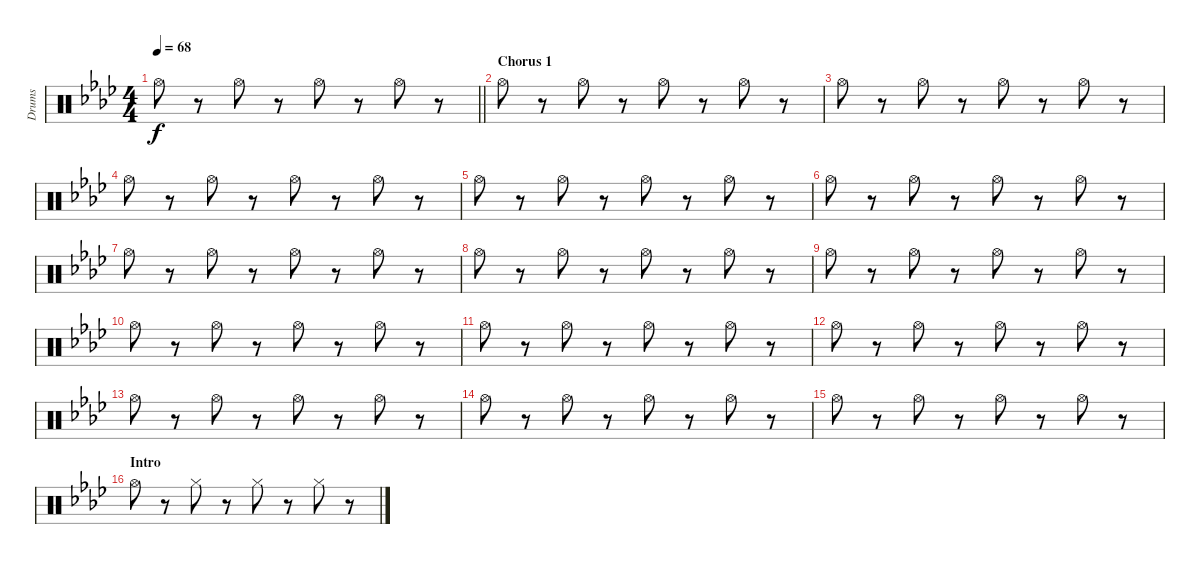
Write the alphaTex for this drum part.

\track ("Drums" "Drums") {instrument percussion}
\staff {score}
\articulation defaults
\ts (4 4)
\tempo 68
\clef neutral
\barLineRight lightlight
\ks ab "Hi-Hat (open)".8{dy f}
r.8 "Hi-Hat (open)".8 r.8 "Hi-Hat (open)".8 r.8 "Hi-Hat (open)".8 r.8 |
\section ("" "Chorus 1")
"Hi-Hat (open)".8 r.8 "Hi-Hat (open)".8 r.8 "Hi-Hat (open)".8 r.8 "Hi-Hat (open)".8 r.8 |
"Hi-Hat (open)".8 r.8 "Hi-Hat (open)".8 r.8 "Hi-Hat (open)".8 r.8 "Hi-Hat (open)".8 r.8 |
"Hi-Hat (open)".8 r.8 "Hi-Hat (open)".8 r.8 "Hi-Hat (open)".8 r.8 "Hi-Hat (open)".8 r.8 |
"Hi-Hat (open)".8 r.8 "Hi-Hat (open)".8 r.8 "Hi-Hat (open)".8 r.8 "Hi-Hat (open)".8 r.8 |
"Hi-Hat (open)".8 r.8 "Hi-Hat (open)".8 r.8 "Hi-Hat (open)".8 r.8 "Hi-Hat (open)".8 r.8 |
"Hi-Hat (open)".8 r.8 "Hi-Hat (open)".8 r.8 "Hi-Hat (open)".8 r.8 "Hi-Hat (open)".8 r.8 |
"Hi-Hat (open)".8 r.8 "Hi-Hat (open)".8 r.8 "Hi-Hat (open)".8 r.8 "Hi-Hat (open)".8 r.8 |
"Hi-Hat (open)".8 r.8 "Hi-Hat (open)".8 r.8 "Hi-Hat (open)".8 r.8 "Hi-Hat (open)".8 r.8 |
"Hi-Hat (open)".8 r.8 "Hi-Hat (open)".8 r.8 "Hi-Hat (open)".8 r.8 "Hi-Hat (open)".8 r.8 |
"Hi-Hat (open)".8 r.8 "Hi-Hat (open)".8 r.8 "Hi-Hat (open)".8 r.8 "Hi-Hat (open)".8 r.8 |
"Hi-Hat (open)".8 r.8 "Hi-Hat (open)".8 r.8 "Hi-Hat (open)".8 r.8 "Hi-Hat (open)".8 r.8 |
"Hi-Hat (open)".8 r.8 "Hi-Hat (open)".8 r.8 "Hi-Hat (open)".8 r.8 "Hi-Hat (open)".8 r.8 |
"Hi-Hat (open)".8 r.8 "Hi-Hat (open)".8 r.8 "Hi-Hat (open)".8 r.8 "Hi-Hat (open)".8 r.8 |
"Hi-Hat (open)".8 r.8 "Hi-Hat (open)".8 r.8 "Hi-Hat (open)".8 r.8 "Hi-Hat (open)".8 r.8 |
\section ("" "Intro")
"Hi-Hat (open)".8 r.8 "Hi-Hat (closed)".8 r.8 "Hi-Hat (closed)".8 r.8 "Hi-Hat (closed)".8 r.8
